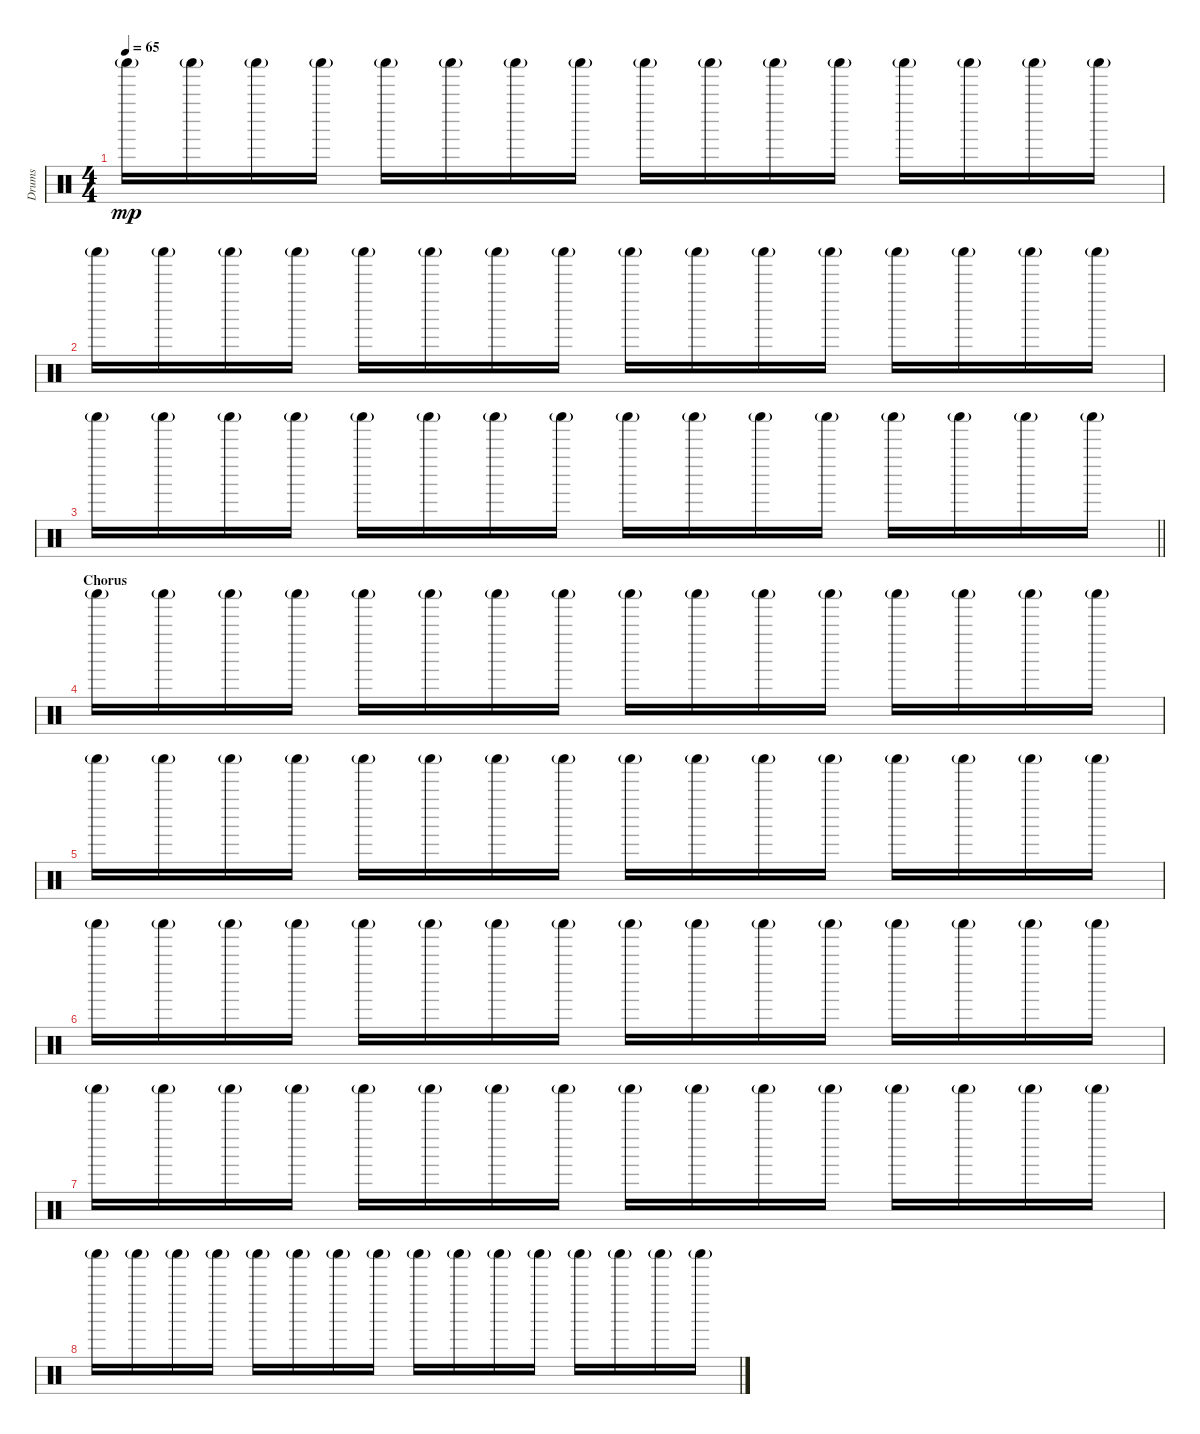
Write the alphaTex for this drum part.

\track ("Drums" "Drums") {instrument percussion}
\staff {score}
\articulation defaults
\ts (4 4)
\tempo 65
\clef neutral
\ks c "Shaker (hit)"{g}.16{dy mp} "Shaker (hit)"{g}.16 "Shaker (hit)"{g}.16 "Shaker (hit)"{g}.16 "Shaker (hit)"{g}.16 "Shaker (hit)"{g}.16 "Shaker (hit)"{g}.16 "Shaker (hit)"{g}.16 "Shaker (hit)"{g}.16 "Shaker (hit)"{g}.16 "Shaker (hit)"{g}.16 "Shaker (hit)"{g}.16 "Shaker (hit)"{g}.16 "Shaker (hit)"{g}.16 "Shaker (hit)"{g}.16 "Shaker (hit)"{g}.16
|
"Shaker (hit)"{g}.16 "Shaker (hit)"{g}.16 "Shaker (hit)"{g}.16 "Shaker (hit)"{g}.16 "Shaker (hit)"{g}.16 "Shaker (hit)"{g}.16 "Shaker (hit)"{g}.16 "Shaker (hit)"{g}.16 "Shaker (hit)"{g}.16 "Shaker (hit)"{g}.16 "Shaker (hit)"{g}.16 "Shaker (hit)"{g}.16 "Shaker (hit)"{g}.16 "Shaker (hit)"{g}.16 "Shaker (hit)"{g}.16 "Shaker (hit)"{g}.16 |
\barLineRight lightlight "Shaker (hit)"{g}.16 "Shaker (hit)"{g}.16 "Shaker (hit)"{g}.16 "Shaker (hit)"{g}.16 "Shaker (hit)"{g}.16 "Shaker (hit)"{g}.16 "Shaker (hit)"{g}.16 "Shaker (hit)"{g}.16 "Shaker (hit)"{g}.16 "Shaker (hit)"{g}.16 "Shaker (hit)"{g}.16 "Shaker (hit)"{g}.16 "Shaker (hit)"{g}.16 "Shaker (hit)"{g}.16 "Shaker (hit)"{g}.16 "Shaker (hit)"{g}.16
|
\section ("" "Chorus")
"Shaker (hit)"{g}.16 "Shaker (hit)"{g}.16 "Shaker (hit)"{g}.16 "Shaker (hit)"{g}.16 "Shaker (hit)"{g}.16 "Shaker (hit)"{g}.16 "Shaker (hit)"{g}.16 "Shaker (hit)"{g}.16 "Shaker (hit)"{g}.16 "Shaker (hit)"{g}.16 "Shaker (hit)"{g}.16 "Shaker (hit)"{g}.16 "Shaker (hit)"{g}.16 "Shaker (hit)"{g}.16 "Shaker (hit)"{g}.16 "Shaker (hit)"{g}.16 |
"Shaker (hit)"{g}.16 "Shaker (hit)"{g}.16 "Shaker (hit)"{g}.16 "Shaker (hit)"{g}.16 "Shaker (hit)"{g}.16 "Shaker (hit)"{g}.16 "Shaker (hit)"{g}.16 "Shaker (hit)"{g}.16 "Shaker (hit)"{g}.16 "Shaker (hit)"{g}.16 "Shaker (hit)"{g}.16 "Shaker (hit)"{g}.16 "Shaker (hit)"{g}.16 "Shaker (hit)"{g}.16 "Shaker (hit)"{g}.16 "Shaker (hit)"{g}.16 |
"Shaker (hit)"{g}.16 "Shaker (hit)"{g}.16 "Shaker (hit)"{g}.16 "Shaker (hit)"{g}.16 "Shaker (hit)"{g}.16 "Shaker (hit)"{g}.16 "Shaker (hit)"{g}.16 "Shaker (hit)"{g}.16 "Shaker (hit)"{g}.16 "Shaker (hit)"{g}.16 "Shaker (hit)"{g}.16 "Shaker (hit)"{g}.16 "Shaker (hit)"{g}.16 "Shaker (hit)"{g}.16 "Shaker (hit)"{g}.16 "Shaker (hit)"{g}.16 |
"Shaker (hit)"{g}.16 "Shaker (hit)"{g}.16 "Shaker (hit)"{g}.16 "Shaker (hit)"{g}.16 "Shaker (hit)"{g}.16 "Shaker (hit)"{g}.16 "Shaker (hit)"{g}.16 "Shaker (hit)"{g}.16 "Shaker (hit)"{g}.16 "Shaker (hit)"{g}.16 "Shaker (hit)"{g}.16 "Shaker (hit)"{g}.16 "Shaker (hit)"{g}.16 "Shaker (hit)"{g}.16 "Shaker (hit)"{g}.16 "Shaker (hit)"{g}.16 |
"Shaker (hit)"{g}.16 "Shaker (hit)"{g}.16 "Shaker (hit)"{g}.16 "Shaker (hit)"{g}.16 "Shaker (hit)"{g}.16 "Shaker (hit)"{g}.16 "Shaker (hit)"{g}.16 "Shaker (hit)"{g}.16 "Shaker (hit)"{g}.16 "Shaker (hit)"{g}.16 "Shaker (hit)"{g}.16 "Shaker (hit)"{g}.16 "Shaker (hit)"{g}.16 "Shaker (hit)"{g}.16 "Shaker (hit)"{g}.16 "Shaker (hit)"{g}.16
